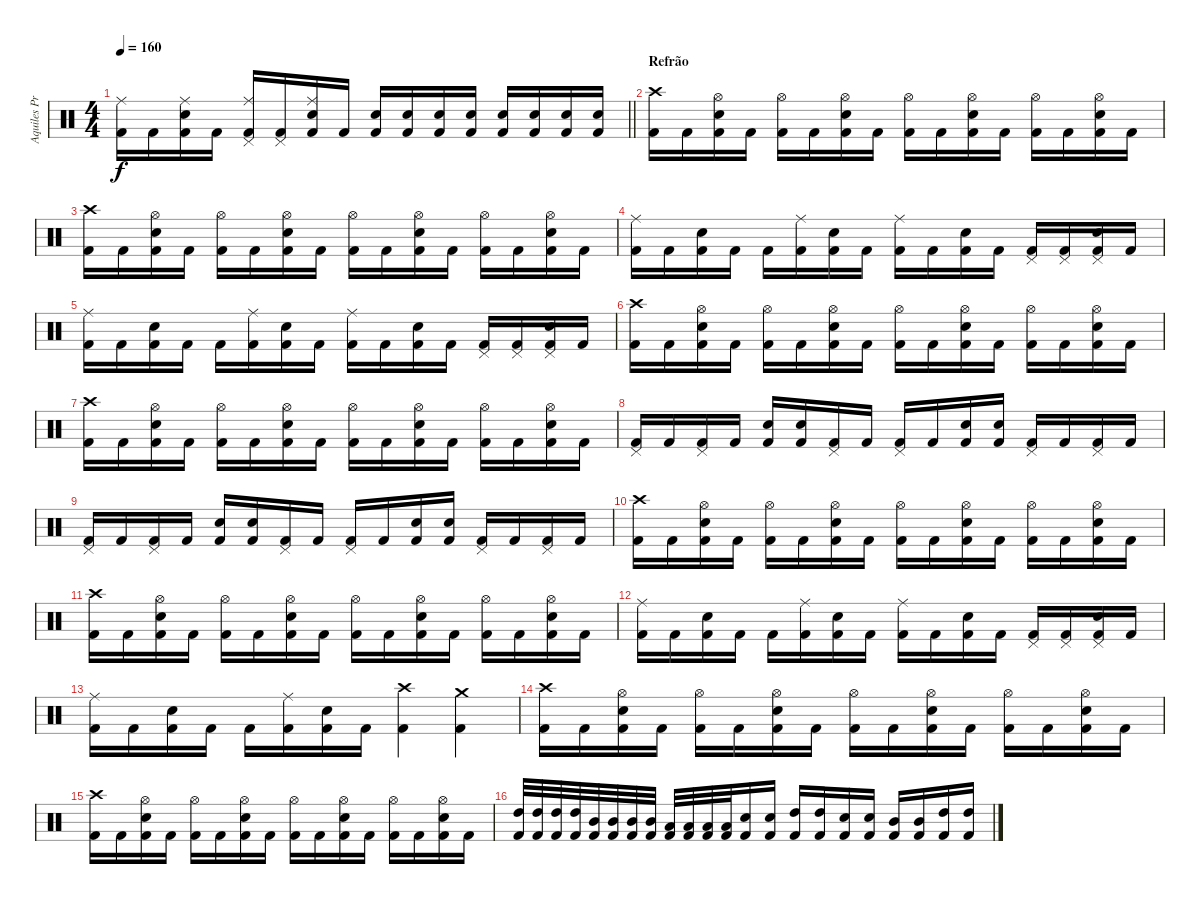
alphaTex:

\track ("Aquiles Priester" "Aquiles Pr") {instrument percussion}
\staff {score}
\articulation defaults
\ts (4 4)
\tempo 160
\clef neutral
\barLineRight lightlight
\ks c
("Ride (middle)" "Kick (hit) 2").16{dy f} "Kick (hit) 2".16 ("Ride (middle)" "Electric Snare (hit)" "Kick (hit) 2").16 "Kick (hit) 2".16 ("Ride (middle)" "Pedal Hi-Hat (hit)" "Kick (hit) 2").16 ("Pedal Hi-Hat (hit)" "Kick (hit) 2").16 ("Ride (middle)" "Electric Snare (hit)" "Kick (hit) 2").16 "Kick (hit) 2".16 ("Electric Snare (hit)" "Kick (hit) 2").16 ("Electric Snare (hit)" "Kick (hit) 2").16 ("Electric Snare (hit)" "Kick (hit) 2").16 ("Electric Snare (hit)" "Kick (hit) 2").16 ("Electric Snare (hit)" "Kick (hit) 2").16 ("Electric Snare (hit)" "Kick (hit) 2").16 ("Electric Snare (hit)" "Kick (hit) 2").16 ("Electric Snare (hit)" "Kick (hit) 2").16 |
\section ("" "Refrão")
("Crash high (hit)" "Kick (hit) 2").16 "Kick (hit) 2".16 ("Hi-Hat (open)" "Electric Snare (hit)" "Kick (hit) 2").16 "Kick (hit) 2".16 ("Hi-Hat (open)" "Kick (hit) 2").16 "Kick (hit) 2".16 ("Hi-Hat (open)" "Electric Snare (hit)" "Kick (hit) 2").16 "Kick (hit) 2".16 ("Hi-Hat (open)" "Kick (hit) 2").16 "Kick (hit) 2".16 ("Hi-Hat (open)" "Electric Snare (hit)" "Kick (hit) 2").16 "Kick (hit) 2".16 ("Hi-Hat (open)" "Kick (hit) 2").16 "Kick (hit) 2".16 ("Hi-Hat (open)" "Electric Snare (hit)" "Kick (hit) 2").16 "Kick (hit) 2".16 |
("Crash high (hit)" "Kick (hit) 2").16 "Kick (hit) 2".16 ("Hi-Hat (open)" "Electric Snare (hit)" "Kick (hit) 2").16 "Kick (hit) 2".16 ("Hi-Hat (open)" "Kick (hit) 2").16 "Kick (hit) 2".16 ("Hi-Hat (open)" "Electric Snare (hit)" "Kick (hit) 2").16 "Kick (hit) 2".16 ("Hi-Hat (open)" "Kick (hit) 2").16 "Kick (hit) 2".16 ("Hi-Hat (open)" "Electric Snare (hit)" "Kick (hit) 2").16 "Kick (hit) 2".16 ("Hi-Hat (open)" "Kick (hit) 2").16 "Kick (hit) 2".16 ("Hi-Hat (open)" "Electric Snare (hit)" "Kick (hit) 2").16 "Kick (hit) 2".16 |
("Ride (middle)" "Kick (hit) 2").16 "Kick (hit) 2".16 ("Electric Snare (hit)" "Kick (hit) 2").16 "Kick (hit) 2".16 "Kick (hit) 2".16 ("Ride (middle)" "Kick (hit) 2").16 ("Electric Snare (hit)" "Kick (hit) 2").16 "Kick (hit) 2".16 ("Ride (middle)" "Kick (hit) 2").16 "Kick (hit) 2".16 ("Electric Snare (hit)" "Kick (hit) 2").16 "Kick (hit) 2".16 ("Pedal Hi-Hat (hit)" "Kick (hit) 2").16 ("Pedal Hi-Hat (hit)" "Kick (hit) 2").16 ("Pedal Hi-Hat (hit)" "Electric Snare (hit)" "Kick (hit) 2").16 "Kick (hit) 2".16 |
("Ride (middle)" "Kick (hit) 2").16 "Kick (hit) 2".16 ("Electric Snare (hit)" "Kick (hit) 2").16 "Kick (hit) 2".16 "Kick (hit) 2".16 ("Ride (middle)" "Kick (hit) 2").16 ("Electric Snare (hit)" "Kick (hit) 2").16 "Kick (hit) 2".16 ("Ride (middle)" "Kick (hit) 2").16 "Kick (hit) 2".16 ("Electric Snare (hit)" "Kick (hit) 2").16 "Kick (hit) 2".16 ("Pedal Hi-Hat (hit)" "Kick (hit) 2").16 ("Pedal Hi-Hat (hit)" "Kick (hit) 2").16 ("Pedal Hi-Hat (hit)" "Electric Snare (hit)" "Kick (hit) 2").16 "Kick (hit) 2".16 |
("Crash high (hit)" "Kick (hit) 2").16 "Kick (hit) 2".16 ("Hi-Hat (open)" "Electric Snare (hit)" "Kick (hit) 2").16 "Kick (hit) 2".16 ("Hi-Hat (open)" "Kick (hit) 2").16 "Kick (hit) 2".16 ("Hi-Hat (open)" "Electric Snare (hit)" "Kick (hit) 2").16 "Kick (hit) 2".16 ("Hi-Hat (open)" "Kick (hit) 2").16 "Kick (hit) 2".16 ("Hi-Hat (open)" "Electric Snare (hit)" "Kick (hit) 2").16 "Kick (hit) 2".16 ("Hi-Hat (open)" "Kick (hit) 2").16 "Kick (hit) 2".16 ("Hi-Hat (open)" "Electric Snare (hit)" "Kick (hit) 2").16 "Kick (hit) 2".16 |
("Crash high (hit)" "Kick (hit) 2").16 "Kick (hit) 2".16 ("Hi-Hat (open)" "Electric Snare (hit)" "Kick (hit) 2").16 "Kick (hit) 2".16 ("Hi-Hat (open)" "Kick (hit) 2").16 "Kick (hit) 2".16 ("Hi-Hat (open)" "Electric Snare (hit)" "Kick (hit) 2").16 "Kick (hit) 2".16 ("Hi-Hat (open)" "Kick (hit) 2").16 "Kick (hit) 2".16 ("Hi-Hat (open)" "Electric Snare (hit)" "Kick (hit) 2").16 "Kick (hit) 2".16 ("Hi-Hat (open)" "Kick (hit) 2").16 "Kick (hit) 2".16 ("Hi-Hat (open)" "Electric Snare (hit)" "Kick (hit) 2").16 "Kick (hit) 2".16 |
("Pedal Hi-Hat (hit)" "Kick (hit) 2").16 "Kick (hit) 2".16 ("Pedal Hi-Hat (hit)" "Kick (hit) 2").16 "Kick (hit) 2".16 ("Electric Snare (hit)" "Kick (hit) 2").16 ("Electric Snare (hit)" "Kick (hit) 2").16 ("Pedal Hi-Hat (hit)" "Kick (hit) 2").16 "Kick (hit) 2".16 ("Pedal Hi-Hat (hit)" "Kick (hit) 2").16 "Kick (hit) 2".16 ("Electric Snare (hit)" "Kick (hit) 2").16 ("Electric Snare (hit)" "Kick (hit) 2").16 ("Pedal Hi-Hat (hit)" "Kick (hit) 2").16 "Kick (hit) 2".16 ("Pedal Hi-Hat (hit)" "Kick (hit) 2").16 "Kick (hit) 2".16 |
("Pedal Hi-Hat (hit)" "Kick (hit) 2").16 "Kick (hit) 2".16 ("Pedal Hi-Hat (hit)" "Kick (hit) 2").16 "Kick (hit) 2".16 ("Electric Snare (hit)" "Kick (hit) 2").16 ("Electric Snare (hit)" "Kick (hit) 2").16 ("Pedal Hi-Hat (hit)" "Kick (hit) 2").16 "Kick (hit) 2".16 ("Pedal Hi-Hat (hit)" "Kick (hit) 2").16 "Kick (hit) 2".16 ("Electric Snare (hit)" "Kick (hit) 2").16 ("Electric Snare (hit)" "Kick (hit) 2").16 ("Pedal Hi-Hat (hit)" "Kick (hit) 2").16 "Kick (hit) 2".16 ("Pedal Hi-Hat (hit)" "Kick (hit) 2").16 "Kick (hit) 2".16 |
("Crash high (hit)" "Kick (hit) 2").16 "Kick (hit) 2".16 ("Hi-Hat (open)" "Electric Snare (hit)" "Kick (hit) 2").16 "Kick (hit) 2".16 ("Hi-Hat (open)" "Kick (hit) 2").16 "Kick (hit) 2".16 ("Hi-Hat (open)" "Electric Snare (hit)" "Kick (hit) 2").16 "Kick (hit) 2".16 ("Hi-Hat (open)" "Kick (hit) 2").16 "Kick (hit) 2".16 ("Hi-Hat (open)" "Electric Snare (hit)" "Kick (hit) 2").16 "Kick (hit) 2".16 ("Hi-Hat (open)" "Kick (hit) 2").16 "Kick (hit) 2".16 ("Hi-Hat (open)" "Electric Snare (hit)" "Kick (hit) 2").16 "Kick (hit) 2".16 |
("Crash high (hit)" "Kick (hit) 2").16 "Kick (hit) 2".16 ("Hi-Hat (open)" "Electric Snare (hit)" "Kick (hit) 2").16 "Kick (hit) 2".16 ("Hi-Hat (open)" "Kick (hit) 2").16 "Kick (hit) 2".16 ("Hi-Hat (open)" "Electric Snare (hit)" "Kick (hit) 2").16 "Kick (hit) 2".16 ("Hi-Hat (open)" "Kick (hit) 2").16 "Kick (hit) 2".16 ("Hi-Hat (open)" "Electric Snare (hit)" "Kick (hit) 2").16 "Kick (hit) 2".16 ("Hi-Hat (open)" "Kick (hit) 2").16 "Kick (hit) 2".16 ("Hi-Hat (open)" "Electric Snare (hit)" "Kick (hit) 2").16 "Kick (hit) 2".16 |
("Ride (middle)" "Kick (hit) 2").16 "Kick (hit) 2".16 ("Electric Snare (hit)" "Kick (hit) 2").16 "Kick (hit) 2".16 "Kick (hit) 2".16 ("Ride (middle)" "Kick (hit) 2").16 ("Electric Snare (hit)" "Kick (hit) 2").16 "Kick (hit) 2".16 ("Ride (middle)" "Kick (hit) 2").16 "Kick (hit) 2".16 ("Electric Snare (hit)" "Kick (hit) 2").16 "Kick (hit) 2".16 ("Pedal Hi-Hat (hit)" "Kick (hit) 2").16 ("Pedal Hi-Hat (hit)" "Kick (hit) 2").16 ("Pedal Hi-Hat (hit)" "Electric Snare (hit)" "Kick (hit) 2").16 "Kick (hit) 2".16 |
("Ride (middle)" "Kick (hit) 2").16 "Kick (hit) 2".16 ("Electric Snare (hit)" "Kick (hit) 2").16 "Kick (hit) 2".16 "Kick (hit) 2".16 ("Ride (middle)" "Kick (hit) 2").16 ("Electric Snare (hit)" "Kick (hit) 2").16 "Kick (hit) 2".16 ("Crash high (hit)" "Kick (hit) 2").4 ("Crash medium (hit)" "Kick (hit) 2").4 |
("Crash high (hit)" "Kick (hit) 2").16 "Kick (hit) 2".16 ("Hi-Hat (open)" "Electric Snare (hit)" "Kick (hit) 2").16 "Kick (hit) 2".16 ("Hi-Hat (open)" "Kick (hit) 2").16 "Kick (hit) 2".16 ("Hi-Hat (open)" "Electric Snare (hit)" "Kick (hit) 2").16 "Kick (hit) 2".16 ("Hi-Hat (open)" "Kick (hit) 2").16 "Kick (hit) 2".16 ("Hi-Hat (open)" "Electric Snare (hit)" "Kick (hit) 2").16 "Kick (hit) 2".16 ("Hi-Hat (open)" "Kick (hit) 2").16 "Kick (hit) 2".16 ("Hi-Hat (open)" "Electric Snare (hit)" "Kick (hit) 2").16 "Kick (hit) 2".16 |
("Crash high (hit)" "Kick (hit) 2").16 "Kick (hit) 2".16 ("Hi-Hat (open)" "Electric Snare (hit)" "Kick (hit) 2").16 "Kick (hit) 2".16 ("Hi-Hat (open)" "Kick (hit) 2").16 "Kick (hit) 2".16 ("Hi-Hat (open)" "Electric Snare (hit)" "Kick (hit) 2").16 "Kick (hit) 2".16 ("Hi-Hat (open)" "Kick (hit) 2").16 "Kick (hit) 2".16 ("Hi-Hat (open)" "Electric Snare (hit)" "Kick (hit) 2").16 "Kick (hit) 2".16 ("Hi-Hat (open)" "Kick (hit) 2").16 "Kick (hit) 2".16 ("Hi-Hat (open)" "Electric Snare (hit)" "Kick (hit) 2").16 "Kick (hit) 2".16 |
("High Tom (hit)" "Kick (hit) 2").32 ("High Tom (hit)" "Kick (hit) 2").32 ("High Tom (hit)" "Kick (hit) 2").32 ("High Tom (hit)" "Kick (hit) 2").32 ("Mid Tom (hit)" "Kick (hit) 2").32 ("Mid Tom (hit)" "Kick (hit) 2").32 ("Mid Tom (hit)" "Kick (hit) 2").32 ("Mid Tom (hit)" "Kick (hit) 2").32 ("Low Tom (hit)" "Kick (hit) 2").32 ("Low Tom (hit)" "Kick (hit) 2").32 ("Low Tom (hit)" "Kick (hit) 2").32 ("Low Tom (hit)" "Kick (hit) 2").32 ("Electric Snare (hit)" "Kick (hit) 2").16 ("Electric Snare (hit)" "Kick (hit) 2").16 ("High Tom (hit)" "Kick (hit) 2").16 ("High Tom (hit)" "Kick (hit) 2").16 ("Electric Snare (hit)" "Kick (hit) 2").16 ("Electric Snare (hit)" "Kick (hit) 2").16 ("Mid Tom (hit)" "Kick (hit) 2").16 ("Mid Tom (hit)" "Kick (hit) 2").16 ("High Tom (hit)" "Kick (hit) 2").16 ("High Tom (hit)" "Kick (hit) 2").16
